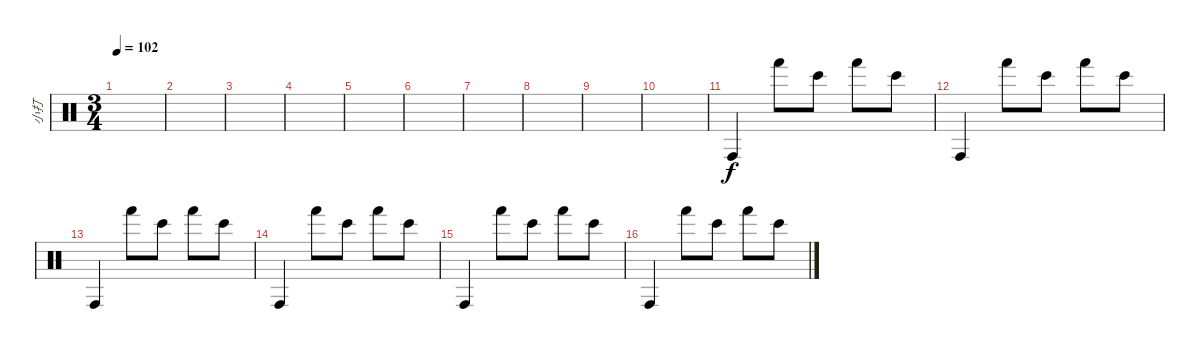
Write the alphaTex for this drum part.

\track ("小打" "小打") {instrument percussion}
\staff {score}
\articulation defaults
\ts (3 4)
\tempo 102
\clef neutral
\ks c
|
|
|
|
|
|
|
|
|
|
"Conga high (hit)".4 "Hand (hit)".8 "Bongo High (hit)".8 "Hand (hit)".8 "Bongo High (hit)".8 |
"Conga high (hit)".4 "Hand (hit)".8 "Bongo High (hit)".8 "Hand (hit)".8 "Bongo High (hit)".8 |
"Conga high (hit)".4 "Hand (hit)".8 "Bongo High (hit)".8 "Hand (hit)".8 "Bongo High (hit)".8 |
"Conga high (hit)".4 "Hand (hit)".8 "Bongo High (hit)".8 "Hand (hit)".8 "Bongo High (hit)".8 |
"Conga high (hit)".4 "Hand (hit)".8 "Bongo High (hit)".8 "Hand (hit)".8 "Bongo High (hit)".8 |
"Conga high (hit)".4 "Hand (hit)".8 "Bongo High (hit)".8 "Hand (hit)".8 "Bongo High (hit)".8
